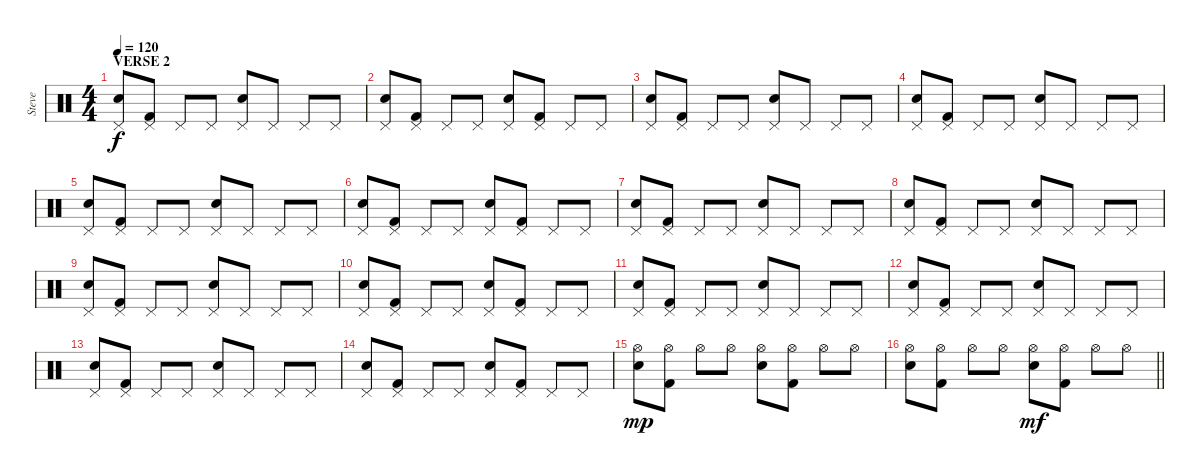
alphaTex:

\track ("Steve" "Steve") {instrument percussion}
\staff {score}
\articulation defaults
\ts (4 4)
\section ("" "VERSE 2")
\tempo 120
\clef neutral
\ks c
("Pedal Hi-Hat (hit)" "Electric Snare (hit)").8{dy f} ("Pedal Hi-Hat (hit)" "Kick (hit) 2").8 "Pedal Hi-Hat (hit)".8 "Pedal Hi-Hat (hit)".8 ("Pedal Hi-Hat (hit)" "Electric Snare (hit)").8 "Pedal Hi-Hat (hit)".8 "Pedal Hi-Hat (hit)".8 "Pedal Hi-Hat (hit)".8 |
("Pedal Hi-Hat (hit)" "Electric Snare (hit)").8 ("Pedal Hi-Hat (hit)" "Kick (hit) 2").8 "Pedal Hi-Hat (hit)".8 "Pedal Hi-Hat (hit)".8 ("Pedal Hi-Hat (hit)" "Electric Snare (hit)").8 ("Pedal Hi-Hat (hit)" "Kick (hit) 2").8 "Pedal Hi-Hat (hit)".8 "Pedal Hi-Hat (hit)".8 |
("Pedal Hi-Hat (hit)" "Electric Snare (hit)").8 ("Pedal Hi-Hat (hit)" "Kick (hit) 2").8 "Pedal Hi-Hat (hit)".8 "Pedal Hi-Hat (hit)".8 ("Pedal Hi-Hat (hit)" "Electric Snare (hit)").8 "Pedal Hi-Hat (hit)".8 "Pedal Hi-Hat (hit)".8 "Pedal Hi-Hat (hit)".8 |
("Pedal Hi-Hat (hit)" "Electric Snare (hit)").8 ("Pedal Hi-Hat (hit)" "Kick (hit) 2").8 "Pedal Hi-Hat (hit)".8 "Pedal Hi-Hat (hit)".8 ("Pedal Hi-Hat (hit)" "Electric Snare (hit)").8 "Pedal Hi-Hat (hit)".8 "Pedal Hi-Hat (hit)".8 "Pedal Hi-Hat (hit)".8 |
("Pedal Hi-Hat (hit)" "Electric Snare (hit)").8 ("Pedal Hi-Hat (hit)" "Kick (hit) 2").8 "Pedal Hi-Hat (hit)".8 "Pedal Hi-Hat (hit)".8 ("Pedal Hi-Hat (hit)" "Electric Snare (hit)").8 "Pedal Hi-Hat (hit)".8 "Pedal Hi-Hat (hit)".8 "Pedal Hi-Hat (hit)".8 |
("Pedal Hi-Hat (hit)" "Electric Snare (hit)").8 ("Pedal Hi-Hat (hit)" "Kick (hit) 2").8 "Pedal Hi-Hat (hit)".8 "Pedal Hi-Hat (hit)".8 ("Pedal Hi-Hat (hit)" "Electric Snare (hit)").8 ("Pedal Hi-Hat (hit)" "Kick (hit) 2").8 "Pedal Hi-Hat (hit)".8 "Pedal Hi-Hat (hit)".8 |
("Pedal Hi-Hat (hit)" "Electric Snare (hit)").8 ("Pedal Hi-Hat (hit)" "Kick (hit) 2").8 "Pedal Hi-Hat (hit)".8 "Pedal Hi-Hat (hit)".8 ("Pedal Hi-Hat (hit)" "Electric Snare (hit)").8 "Pedal Hi-Hat (hit)".8 "Pedal Hi-Hat (hit)".8 "Pedal Hi-Hat (hit)".8 |
("Pedal Hi-Hat (hit)" "Electric Snare (hit)").8 ("Pedal Hi-Hat (hit)" "Kick (hit) 2").8 "Pedal Hi-Hat (hit)".8 "Pedal Hi-Hat (hit)".8 ("Pedal Hi-Hat (hit)" "Electric Snare (hit)").8 "Pedal Hi-Hat (hit)".8 "Pedal Hi-Hat (hit)".8 "Pedal Hi-Hat (hit)".8 |
("Pedal Hi-Hat (hit)" "Electric Snare (hit)").8 ("Pedal Hi-Hat (hit)" "Kick (hit) 2").8 "Pedal Hi-Hat (hit)".8 "Pedal Hi-Hat (hit)".8 ("Pedal Hi-Hat (hit)" "Electric Snare (hit)").8 "Pedal Hi-Hat (hit)".8 "Pedal Hi-Hat (hit)".8 "Pedal Hi-Hat (hit)".8 |
("Pedal Hi-Hat (hit)" "Electric Snare (hit)").8 ("Pedal Hi-Hat (hit)" "Kick (hit) 2").8 "Pedal Hi-Hat (hit)".8 "Pedal Hi-Hat (hit)".8 ("Pedal Hi-Hat (hit)" "Electric Snare (hit)").8 ("Pedal Hi-Hat (hit)" "Kick (hit) 2").8 "Pedal Hi-Hat (hit)".8 "Pedal Hi-Hat (hit)".8 |
("Pedal Hi-Hat (hit)" "Electric Snare (hit)").8 ("Pedal Hi-Hat (hit)" "Kick (hit) 2").8 "Pedal Hi-Hat (hit)".8 "Pedal Hi-Hat (hit)".8 ("Pedal Hi-Hat (hit)" "Electric Snare (hit)").8 "Pedal Hi-Hat (hit)".8 "Pedal Hi-Hat (hit)".8 "Pedal Hi-Hat (hit)".8 |
("Pedal Hi-Hat (hit)" "Electric Snare (hit)").8 ("Pedal Hi-Hat (hit)" "Kick (hit) 2").8 "Pedal Hi-Hat (hit)".8 "Pedal Hi-Hat (hit)".8 ("Pedal Hi-Hat (hit)" "Electric Snare (hit)").8 "Pedal Hi-Hat (hit)".8 "Pedal Hi-Hat (hit)".8 "Pedal Hi-Hat (hit)".8 |
("Pedal Hi-Hat (hit)" "Electric Snare (hit)").8 ("Pedal Hi-Hat (hit)" "Kick (hit) 2").8 "Pedal Hi-Hat (hit)".8 "Pedal Hi-Hat (hit)".8 ("Pedal Hi-Hat (hit)" "Electric Snare (hit)").8 "Pedal Hi-Hat (hit)".8 "Pedal Hi-Hat (hit)".8 "Pedal Hi-Hat (hit)".8 |
("Pedal Hi-Hat (hit)" "Electric Snare (hit)").8 ("Pedal Hi-Hat (hit)" "Kick (hit) 2").8 "Pedal Hi-Hat (hit)".8 "Pedal Hi-Hat (hit)".8 ("Pedal Hi-Hat (hit)" "Electric Snare (hit)").8 ("Pedal Hi-Hat (hit)" "Kick (hit) 2").8 "Pedal Hi-Hat (hit)".8 "Pedal Hi-Hat (hit)".8 |
("Hi-Hat (open)" "Electric Snare (hit)").8{dy mp} ("Hi-Hat (open)" "Kick (hit) 2").8 "Hi-Hat (open)".8 "Hi-Hat (open)".8 ("Hi-Hat (open)" "Electric Snare (hit)").8 ("Hi-Hat (open)" "Kick (hit) 2").8 "Hi-Hat (open)".8 "Hi-Hat (open)".8 |
\barLineRight lightlight
("Hi-Hat (open)" "Electric Snare (hit)").8 ("Hi-Hat (open)" "Kick (hit) 2").8 "Hi-Hat (open)".8 "Hi-Hat (open)".8 ("Hi-Hat (open)" "Electric Snare (hit)").8{dy mf} ("Hi-Hat (open)" "Kick (hit) 2").8 "Hi-Hat (open)".8 "Hi-Hat (open)".8
